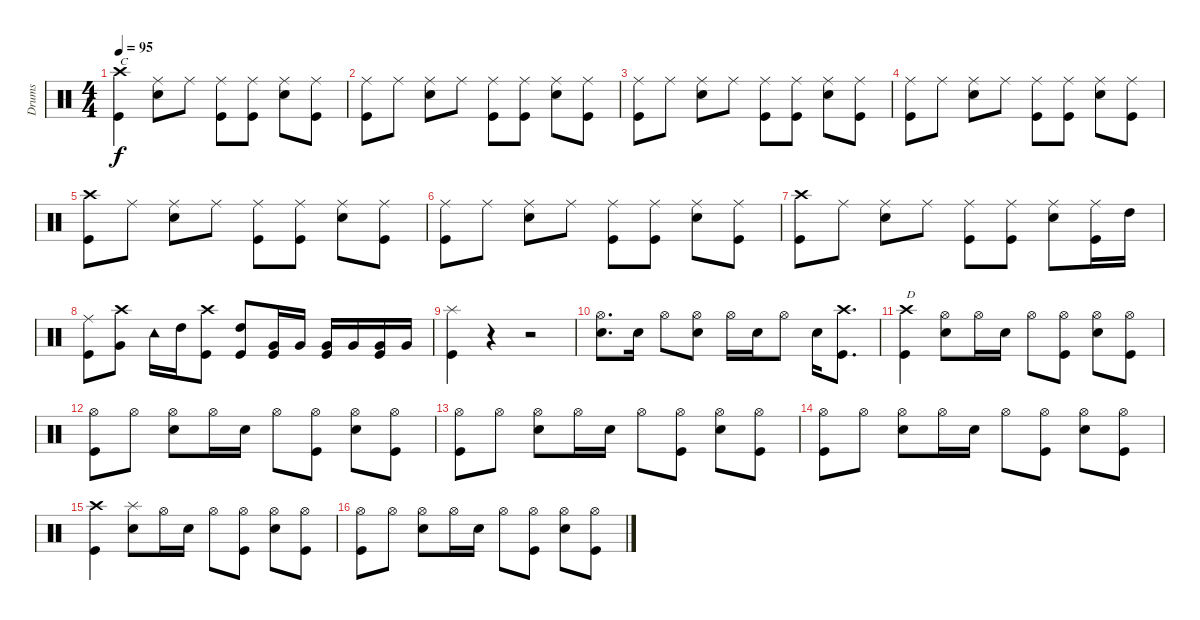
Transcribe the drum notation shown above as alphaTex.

\track ("Drums" "Drums") {instrument percussion}
\staff {score}
\articulation defaults
\ts (4 4)
\tempo 95
\clef neutral
\ks c
("Crash high (hit)" "Kick (hit)").4{txt "C" dy f} ("Ride (middle)" "Electric Snare (hit)").8 "Ride (middle)".8 ("Ride (middle)" "Kick (hit)").8 ("Ride (middle)" "Kick (hit)").8 ("Ride (middle)" "Electric Snare (hit)").8 ("Ride (middle)" "Kick (hit)").8 |
("Ride (middle)" "Kick (hit)").8 "Ride (middle)".8 ("Ride (middle)" "Electric Snare (hit)").8 "Ride (middle)".8 ("Ride (middle)" "Kick (hit)").8 ("Ride (middle)" "Kick (hit)").8 ("Ride (middle)" "Electric Snare (hit)").8 ("Ride (middle)" "Kick (hit)").8 |
("Ride (middle)" "Kick (hit)").8 "Ride (middle)".8 ("Ride (middle)" "Electric Snare (hit)").8 "Ride (middle)".8 ("Ride (middle)" "Kick (hit)").8 ("Ride (middle)" "Kick (hit)").8 ("Ride (middle)" "Electric Snare (hit)").8 ("Ride (middle)" "Kick (hit)").8 |
("Ride (middle)" "Kick (hit)").8 "Ride (middle)".8 ("Ride (middle)" "Electric Snare (hit)").8 "Ride (middle)".8 ("Ride (middle)" "Kick (hit)").8 ("Ride (middle)" "Kick (hit)").8 ("Ride (middle)" "Electric Snare (hit)").8 ("Ride (middle)" "Kick (hit)").8 |
("Crash high (hit)" "Kick (hit)").8 "Ride (middle)".8 ("Ride (middle)" "Electric Snare (hit)").8 "Ride (middle)".8 ("Ride (middle)" "Kick (hit)").8 ("Ride (middle)" "Kick (hit)").8 ("Ride (middle)" "Electric Snare (hit)").8 ("Ride (middle)" "Kick (hit)").8 |
("Ride (middle)" "Kick (hit)").8 "Ride (middle)".8 ("Ride (middle)" "Electric Snare (hit)").8 "Ride (middle)".8 ("Ride (middle)" "Kick (hit)").8 ("Ride (middle)" "Kick (hit)").8 ("Ride (middle)" "Electric Snare (hit)").8 ("Ride (middle)" "Kick (hit)").8 |
("Crash high (hit)" "Kick (hit)").8 "Ride (middle)".8 ("Ride (middle)" "Electric Snare (hit)").8 "Ride (middle)".8 ("Ride (middle)" "Kick (hit)").8 ("Ride (middle)" "Kick (hit)").8 ("Ride (middle)" "Electric Snare (hit)").8 ("Ride (middle)" "Kick (hit)").16 "High Tom (hit)".16 |
("Ride (middle)" "Kick (hit)").8 ("Crash high (hit)" "Very Low Tom (hit)").8 "Tambourine (hit)".16 "High Tom (hit)".16 ("Crash high (hit)" "Kick (hit)").8 ("High Tom (hit)" "Kick (hit)").8 ("Very Low Tom (hit)" "Kick (hit)").16 "Very Low Tom (hit)".16 ("Very Low Tom (hit)" "Kick (hit)").16 "Very Low Tom (hit)".16 ("Very Low Tom (hit)" "Kick (hit)").16 "Very Low Tom (hit)".16 |
("Splash (hit)" "Kick (hit)").4 r.4 r.2 |
("Hi-Hat (open)" "Electric Snare (hit)").8{d} "Electric Snare (hit)".16 "Hi-Hat (open)".8 ("Hi-Hat (open)" "Electric Snare (hit)").8 "Hi-Hat (open)".16 "Electric Snare (hit)".16 "Hi-Hat (open)".8 "Electric Snare (hit)".16 ("Crash high (hit)" "Kick (hit)").8{d} |
("Crash high (hit)" "Kick (hit)").4{txt "D"} ("Hi-Hat (open)" "Electric Snare (hit)").8 "Hi-Hat (open)".16 "Electric Snare (hit)".16 "Hi-Hat (open)".8 ("Hi-Hat (open)" "Kick (hit)").8 ("Hi-Hat (open)" "Electric Snare (hit)").8 ("Hi-Hat (open)" "Kick (hit)").8 |
("Hi-Hat (open)" "Kick (hit)").8 "Hi-Hat (open)".8 ("Hi-Hat (open)" "Electric Snare (hit)").8 "Hi-Hat (open)".16 "Electric Snare (hit)".16 "Hi-Hat (open)".8 ("Hi-Hat (open)" "Kick (hit)").8 ("Hi-Hat (open)" "Electric Snare (hit)").8 ("Hi-Hat (open)" "Kick (hit)").8 |
("Hi-Hat (open)" "Kick (hit)").8 "Hi-Hat (open)".8 ("Hi-Hat (open)" "Electric Snare (hit)").8 "Hi-Hat (open)".16 "Electric Snare (hit)".16 "Hi-Hat (open)".8 ("Hi-Hat (open)" "Kick (hit)").8 ("Hi-Hat (open)" "Electric Snare (hit)").8 ("Hi-Hat (open)" "Kick (hit)").8 |
("Hi-Hat (open)" "Kick (hit)").8 "Hi-Hat (open)".8 ("Hi-Hat (open)" "Electric Snare (hit)").8 "Hi-Hat (open)".16 "Electric Snare (hit)".16 "Hi-Hat (open)".8 ("Hi-Hat (open)" "Kick (hit)").8 ("Hi-Hat (open)" "Electric Snare (hit)").8 ("Hi-Hat (open)" "Kick (hit)").8 |
("Crash high (hit)" "Kick (hit)").4 ("Splash (hit)" "Electric Snare (hit)").8 "Hi-Hat (open)".16 "Electric Snare (hit)".16 "Hi-Hat (open)".8 ("Hi-Hat (open)" "Kick (hit)").8 ("Hi-Hat (open)" "Electric Snare (hit)").8 ("Hi-Hat (open)" "Kick (hit)").8 |
("Hi-Hat (open)" "Kick (hit)").8 "Hi-Hat (open)".8 ("Hi-Hat (open)" "Electric Snare (hit)").8 "Hi-Hat (open)".16 "Electric Snare (hit)".16 "Hi-Hat (open)".8 ("Hi-Hat (open)" "Kick (hit)").8 ("Hi-Hat (open)" "Electric Snare (hit)").8 ("Hi-Hat (open)" "Kick (hit)").8
